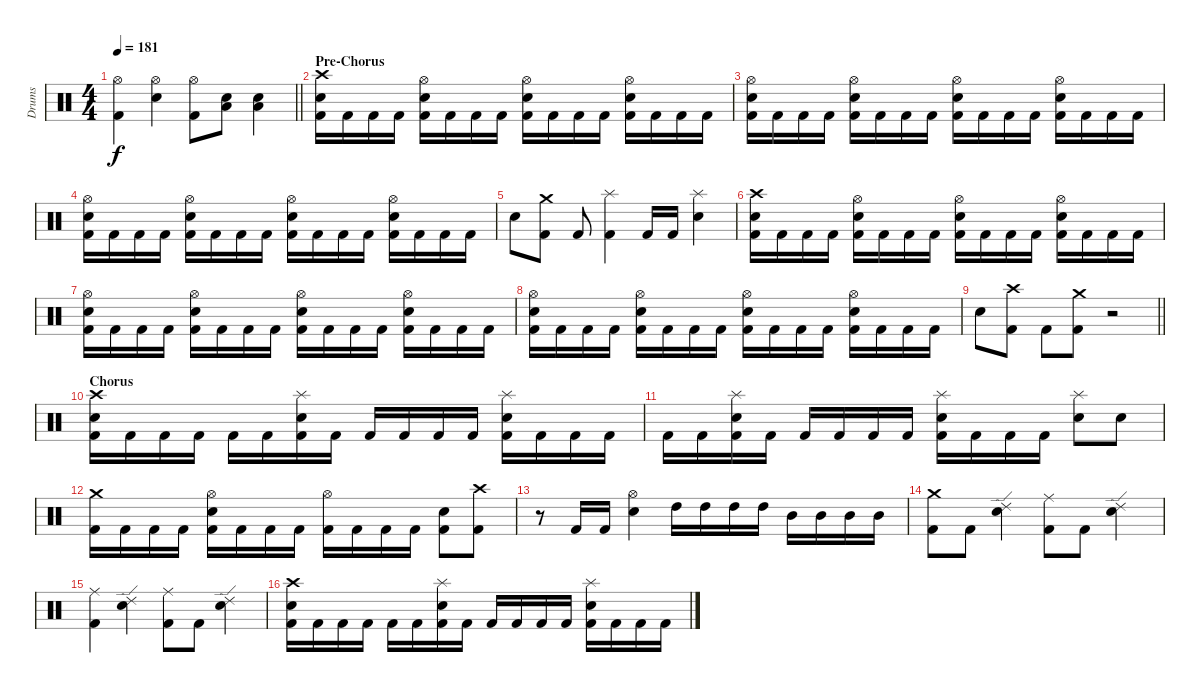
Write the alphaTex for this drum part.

\track ("Drums" "Drums") {instrument percussion}
\staff {score}
\articulation defaults
\ts (4 4)
\tempo 181
\clef neutral
\barLineRight lightlight
\ks c
("Hi-Hat (open)" "Kick (hit) 2").4{dy f} ("Hi-Hat (open)" "Snare (hit) 2").4 ("Hi-Hat (open)" "Kick (hit) 2").8 ("Snare (hit) 2" "Low Tom (hit)").8 ("Snare (hit) 2" "Low Tom (hit)").4 |
\section ("" "Pre-Chorus")
("Crash high (hit)" "Snare (hit) 2" "Kick (hit) 2").16 "Kick (hit) 2".16 "Kick (hit) 2".16 "Kick (hit) 2".16 ("Hi-Hat (open)" "Snare (hit) 2" "Kick (hit) 2").16 "Kick (hit) 2".16 "Kick (hit) 2".16 "Kick (hit) 2".16 ("Hi-Hat (open)" "Snare (hit) 2" "Kick (hit) 2").16 "Kick (hit) 2".16 "Kick (hit) 2".16 "Kick (hit) 2".16 ("Hi-Hat (open)" "Snare (hit) 2" "Kick (hit) 2").16 "Kick (hit) 2".16 "Kick (hit) 2".16 "Kick (hit) 2".16 |
("Hi-Hat (open)" "Snare (hit) 2" "Kick (hit) 2").16 "Kick (hit) 2".16 "Kick (hit) 2".16 "Kick (hit) 2".16 ("Hi-Hat (open)" "Snare (hit) 2" "Kick (hit) 2").16 "Kick (hit) 2".16 "Kick (hit) 2".16 "Kick (hit) 2".16 ("Hi-Hat (open)" "Snare (hit) 2" "Kick (hit) 2").16 "Kick (hit) 2".16 "Kick (hit) 2".16 "Kick (hit) 2".16 ("Hi-Hat (open)" "Snare (hit) 2" "Kick (hit) 2").16 "Kick (hit) 2".16 "Kick (hit) 2".16 "Kick (hit) 2".16 |
("Hi-Hat (open)" "Snare (hit) 2" "Kick (hit) 2").16 "Kick (hit) 2".16 "Kick (hit) 2".16 "Kick (hit) 2".16 ("Hi-Hat (open)" "Snare (hit) 2" "Kick (hit) 2").16 "Kick (hit) 2".16 "Kick (hit) 2".16 "Kick (hit) 2".16 ("Hi-Hat (open)" "Snare (hit) 2" "Kick (hit) 2").16 "Kick (hit) 2".16 "Kick (hit) 2".16 "Kick (hit) 2".16 ("Hi-Hat (open)" "Snare (hit) 2" "Kick (hit) 2").16 "Kick (hit) 2".16 "Kick (hit) 2".16 "Kick (hit) 2".16 |
"Snare (hit) 2".8 ("Crash medium (hit)" "Kick (hit) 2").8 "Kick (hit) 2".8 ("Splash (hit)" "Kick (hit) 2").4 "Kick (hit) 2".16 "Kick (hit) 2".16 ("Splash (hit)" "Snare (hit) 2").4 |
("Crash high (hit)" "Snare (hit) 2" "Kick (hit) 2").16 "Kick (hit) 2".16 "Kick (hit) 2".16 "Kick (hit) 2".16 ("Hi-Hat (open)" "Snare (hit) 2" "Kick (hit) 2").16 "Kick (hit) 2".16 "Kick (hit) 2".16 "Kick (hit) 2".16 ("Hi-Hat (open)" "Snare (hit) 2" "Kick (hit) 2").16 "Kick (hit) 2".16 "Kick (hit) 2".16 "Kick (hit) 2".16 ("Hi-Hat (open)" "Snare (hit) 2" "Kick (hit) 2").16 "Kick (hit) 2".16 "Kick (hit) 2".16 "Kick (hit) 2".16 |
("Hi-Hat (open)" "Snare (hit) 2" "Kick (hit) 2").16 "Kick (hit) 2".16 "Kick (hit) 2".16 "Kick (hit) 2".16 ("Hi-Hat (open)" "Snare (hit) 2" "Kick (hit) 2").16 "Kick (hit) 2".16 "Kick (hit) 2".16 "Kick (hit) 2".16 ("Hi-Hat (open)" "Snare (hit) 2" "Kick (hit) 2").16 "Kick (hit) 2".16 "Kick (hit) 2".16 "Kick (hit) 2".16 ("Hi-Hat (open)" "Snare (hit) 2" "Kick (hit) 2").16 "Kick (hit) 2".16 "Kick (hit) 2".16 "Kick (hit) 2".16 |
("Hi-Hat (open)" "Snare (hit) 2" "Kick (hit) 2").16 "Kick (hit) 2".16 "Kick (hit) 2".16 "Kick (hit) 2".16 ("Hi-Hat (open)" "Snare (hit) 2" "Kick (hit) 2").16 "Kick (hit) 2".16 "Kick (hit) 2".16 "Kick (hit) 2".16 ("Hi-Hat (open)" "Snare (hit) 2" "Kick (hit) 2").16 "Kick (hit) 2".16 "Kick (hit) 2".16 "Kick (hit) 2".16 ("Hi-Hat (open)" "Snare (hit) 2" "Kick (hit) 2").16 "Kick (hit) 2".16 "Kick (hit) 2".16 "Kick (hit) 2".16 |
\barLineRight lightlight "Snare (hit) 2".8
("Crash high (hit)" "Kick (hit) 2").8 "Kick (hit) 2".8 ("Crash medium (hit)" "Kick (hit) 2").8 r.2 |
\section ("" "Chorus")
("Crash high (hit)" "Snare (hit) 2" "Kick (hit) 2").16 "Kick (hit) 2".16 "Kick (hit) 2".16 "Kick (hit) 2".16 "Kick (hit) 2".16 "Kick (hit) 2".16 ("Splash (hit)" "Snare (hit) 2" "Kick (hit) 2").16 "Kick (hit) 2".16 "Kick (hit) 2".16 "Kick (hit) 2".16 "Kick (hit) 2".16 "Kick (hit) 2".16 ("Splash (hit)" "Snare (hit) 2" "Kick (hit) 2").16 "Kick (hit) 2".16 "Kick (hit) 2".16 "Kick (hit) 2".16 |
"Kick (hit) 2".16 "Kick (hit) 2".16 ("Splash (hit)" "Snare (hit) 2" "Kick (hit) 2").16 "Kick (hit) 2".16 "Kick (hit) 2".16 "Kick (hit) 2".16 "Kick (hit) 2".16 "Kick (hit) 2".16 ("Splash (hit)" "Snare (hit) 2" "Kick (hit) 2").16 "Kick (hit) 2".16 "Kick (hit) 2".16 "Kick (hit) 2".16 ("Splash (hit)" "Snare (hit) 2").8 "Snare (hit) 2".8 |
("Crash medium (hit)" "Kick (hit) 2").16 "Kick (hit) 2".16 "Kick (hit) 2".16 "Kick (hit) 2".16 ("Hi-Hat (open)" "Snare (hit) 2" "Kick (hit) 2").16 "Kick (hit) 2".16 "Kick (hit) 2".16 "Kick (hit) 2".16 ("Hi-Hat (open)" "Kick (hit) 2").16 "Kick (hit) 2".16 "Kick (hit) 2".16 "Kick (hit) 2".16 ("Snare (hit) 2" "Kick (hit) 2").8 ("Crash high (hit)" "Kick (hit) 2").8 |
r.8 "Kick (hit) 2".16 "Kick (hit) 2".16 ("Hi-Hat (open)" "Snare (hit) 2").4 "High Tom (hit)".16 "High Tom (hit)".16 "High Tom (hit)".16 "High Tom (hit)".16 "Mid Tom (hit)".16 "Mid Tom (hit)".16 "Mid Tom (hit)".16 "Mid Tom (hit)".16 |
("Crash medium (hit)" "Kick (hit) 2").8 "Kick (hit) 2".8 ("Ride (edge) 2" "Snare (hit) 2").4 ("Ride (middle)" "Kick (hit) 2").8 "Kick (hit) 2".8 ("Ride (edge) 2" "Snare (hit) 2").4 |
("Ride (middle)" "Kick (hit) 2").4 ("Ride (edge) 2" "Snare (hit) 2").4 ("Ride (middle)" "Kick (hit) 2").8 "Kick (hit) 2".8 ("Ride (edge) 2" "Snare (hit) 2").4 |
("Crash high (hit)" "Snare (hit) 2" "Kick (hit) 2").16 "Kick (hit) 2".16 "Kick (hit) 2".16 "Kick (hit) 2".16 "Kick (hit) 2".16 "Kick (hit) 2".16 ("Splash (hit)" "Snare (hit) 2" "Kick (hit) 2").16 "Kick (hit) 2".16 "Kick (hit) 2".16 "Kick (hit) 2".16 "Kick (hit) 2".16 "Kick (hit) 2".16 ("Splash (hit)" "Snare (hit) 2" "Kick (hit) 2").16 "Kick (hit) 2".16 "Kick (hit) 2".16 "Kick (hit) 2".16
